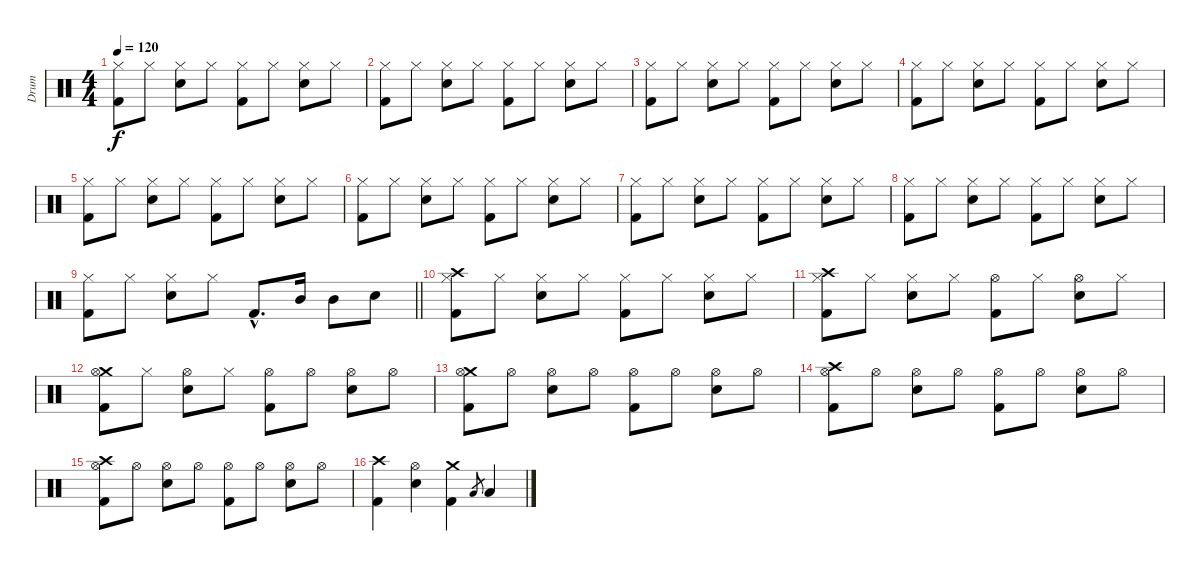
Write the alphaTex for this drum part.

\track ("Drum" "Drum") {instrument percussion}
\staff {score}
\articulation defaults
\ts (4 4)
\tempo 120
\clef neutral
\ks c
("Hi-Hat (closed)" "Kick (hit) 2").8{dy f} "Hi-Hat (closed)".8 ("Hi-Hat (closed)" "Snare (hit) 2").8 "Hi-Hat (closed)".8 ("Hi-Hat (closed)" "Kick (hit) 2").8 "Hi-Hat (closed)".8 ("Hi-Hat (closed)" "Snare (hit) 2").8 "Hi-Hat (closed)".8 |
("Hi-Hat (closed)" "Kick (hit) 2").8 "Hi-Hat (closed)".8 ("Hi-Hat (closed)" "Snare (hit) 2").8 "Hi-Hat (closed)".8 ("Hi-Hat (closed)" "Kick (hit) 2").8 "Hi-Hat (closed)".8 ("Hi-Hat (closed)" "Snare (hit) 2").8 "Hi-Hat (closed)".8 |
("Hi-Hat (closed)" "Kick (hit) 2").8 "Hi-Hat (closed)".8 ("Hi-Hat (closed)" "Snare (hit) 2").8 "Hi-Hat (closed)".8 ("Hi-Hat (closed)" "Kick (hit) 2").8 "Hi-Hat (closed)".8 ("Hi-Hat (closed)" "Snare (hit) 2").8 "Hi-Hat (closed)".8 |
("Hi-Hat (closed)" "Kick (hit) 2").8 "Hi-Hat (closed)".8 ("Hi-Hat (closed)" "Snare (hit) 2").8 "Hi-Hat (closed)".8 ("Hi-Hat (closed)" "Kick (hit) 2").8 "Hi-Hat (closed)".8 ("Hi-Hat (closed)" "Snare (hit) 2").8 "Hi-Hat (closed)".8 |
("Hi-Hat (closed)" "Kick (hit) 2").8 "Hi-Hat (closed)".8 ("Hi-Hat (closed)" "Snare (hit) 2").8 "Hi-Hat (closed)".8 ("Hi-Hat (closed)" "Kick (hit) 2").8 "Hi-Hat (closed)".8 ("Hi-Hat (closed)" "Snare (hit) 2").8 "Hi-Hat (closed)".8 |
("Hi-Hat (closed)" "Kick (hit) 2").8 "Hi-Hat (closed)".8 ("Hi-Hat (closed)" "Snare (hit) 2").8 "Hi-Hat (closed)".8 ("Hi-Hat (closed)" "Kick (hit) 2").8 "Hi-Hat (closed)".8 ("Hi-Hat (closed)" "Snare (hit) 2").8 "Hi-Hat (closed)".8 |
("Hi-Hat (closed)" "Kick (hit) 2").8 "Hi-Hat (closed)".8 ("Hi-Hat (closed)" "Snare (hit) 2").8 "Hi-Hat (closed)".8 ("Hi-Hat (closed)" "Kick (hit) 2").8 "Hi-Hat (closed)".8 ("Hi-Hat (closed)" "Snare (hit) 2").8 "Hi-Hat (closed)".8 |
("Hi-Hat (closed)" "Kick (hit) 2").8 "Hi-Hat (closed)".8 ("Hi-Hat (closed)" "Snare (hit) 2").8 "Hi-Hat (closed)".8 ("Hi-Hat (closed)" "Kick (hit) 2").8 "Hi-Hat (closed)".8 ("Hi-Hat (closed)" "Snare (hit) 2").8 "Hi-Hat (closed)".8 |
\barLineRight lightlight
("Hi-Hat (closed)" "Kick (hit) 2").8 "Hi-Hat (closed)".8 ("Hi-Hat (closed)" "Snare (hit) 2").8 "Hi-Hat (closed)".8 "Kick (hit) 2"{hac}.8{d} "Mid Tom (hit)".16 "Mid Tom (hit)".8 "Snare (hit) 2".8 |
\section ("" "")
("Crash high (hit)" "Hi-Hat (closed)" "Kick (hit) 2").8 "Hi-Hat (closed)".8 ("Hi-Hat (closed)" "Snare (hit) 2").8 "Hi-Hat (closed)".8 ("Hi-Hat (closed)" "Kick (hit) 2").8 "Hi-Hat (closed)".8 ("Hi-Hat (closed)" "Snare (hit) 2").8 "Hi-Hat (closed)".8 |
("Crash high (hit)" "Hi-Hat (closed)" "Kick (hit) 2").8 "Hi-Hat (closed)".8 ("Hi-Hat (closed)" "Snare (hit) 2").8 "Hi-Hat (closed)".8 ("Hi-Hat (open)" "Kick (hit) 2").8 "Hi-Hat (closed)".8 ("Hi-Hat (open)" "Snare (hit) 2").8 "Hi-Hat (closed)".8 |
("Crash medium (hit)" "Hi-Hat (open)" "Kick (hit) 2").8 "Hi-Hat (closed)".8 ("Hi-Hat (open)" "Snare (hit) 2").8 "Hi-Hat (closed)".8 ("Hi-Hat (open)" "Kick (hit) 2").8 "Hi-Hat (open)".8 ("Hi-Hat (open)" "Snare (hit) 2").8 "Hi-Hat (open)".8 |
("Crash medium (hit)" "Hi-Hat (open)" "Kick (hit) 2").8 "Hi-Hat (open)".8 ("Hi-Hat (open)" "Snare (hit) 2").8 "Hi-Hat (open)".8 ("Hi-Hat (open)" "Kick (hit) 2").8 "Hi-Hat (open)".8 ("Hi-Hat (open)" "Snare (hit) 2").8 "Hi-Hat (open)".8 |
("Crash high (hit)" "Hi-Hat (open)" "Kick (hit) 2").8 "Hi-Hat (open)".8 ("Hi-Hat (open)" "Snare (hit) 2").8 "Hi-Hat (open)".8 ("Hi-Hat (open)" "Kick (hit) 2").8 "Hi-Hat (open)".8 ("Hi-Hat (open)" "Snare (hit) 2").8 "Hi-Hat (open)".8 |
("Crash high (hit)" "Hi-Hat (open)" "Kick (hit) 2").8 "Hi-Hat (open)".8 ("Hi-Hat (open)" "Snare (hit) 2").8 "Hi-Hat (open)".8 ("Hi-Hat (open)" "Kick (hit) 2").8 "Hi-Hat (open)".8 ("Hi-Hat (open)" "Snare (hit) 2").8 "Hi-Hat (open)".8 |
("Crash high (hit)" "Kick (hit) 2").4 ("Hi-Hat (open)" "Snare (hit) 2").4 ("Crash medium (hit)" "Kick (hit) 2").4 "Low Floor Tom (hit)".8{gr} "Low Floor Tom (hit)".4
